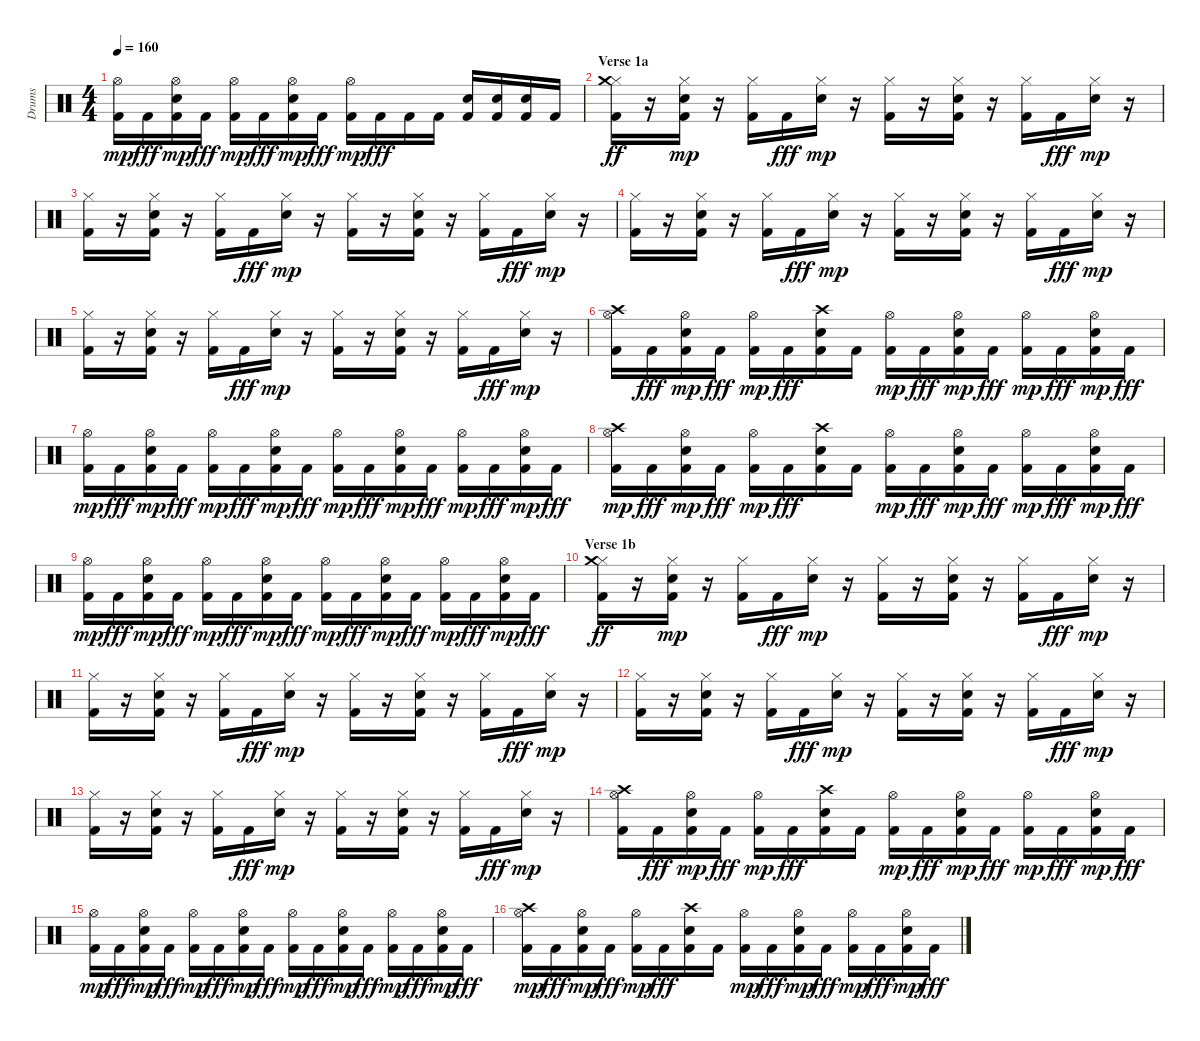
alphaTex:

\track ("Drums" "Drums") {instrument percussion}
\staff {score}
\articulation defaults
\ts (4 4)
\tempo 160
\clef neutral
\ks c
("Kick (hit) 2" "Hi-Hat (open)").16{dy mp} "Kick (hit) 2".16{dy fff} ("Kick (hit) 2" "Hi-Hat (open)" "Snare (hit) 2").16{dy mp} "Kick (hit) 2".16{dy fff} ("Kick (hit) 2" "Hi-Hat (open)").16{dy mp} "Kick (hit) 2".16{dy fff} ("Kick (hit) 2" "Hi-Hat (open)" "Snare (hit) 2").16{dy mp} "Kick (hit) 2".16{dy fff} ("Kick (hit) 2" "Hi-Hat (open)").16{dy mp} "Kick (hit) 2".16{dy fff} "Kick (hit) 2".16 "Kick (hit) 2".16 ("Kick (hit) 2" "Snare (hit) 2").16 ("Kick (hit) 2" "Snare (hit) 2").16 ("Kick (hit) 2" "Snare (hit) 2").16 "Kick (hit) 2".16 |
\section ("" "Verse 1a")
("Kick (hit) 2" "Hi-Hat (closed)" "Crash medium (hit)").16{dy ff} r.16 ("Kick (hit) 2" "Hi-Hat (closed)" "Snare (hit) 2").16{dy mp} r.16 ("Kick (hit) 2" "Hi-Hat (closed)").16 "Kick (hit) 2".16{dy fff} ("Hi-Hat (closed)" "Snare (hit) 2").16{dy mp} r.16 ("Kick (hit) 2" "Hi-Hat (closed)").16 r.16 ("Kick (hit) 2" "Hi-Hat (closed)" "Snare (hit) 2").16 r.16 ("Kick (hit) 2" "Hi-Hat (closed)").16 "Kick (hit) 2".16{dy fff} ("Hi-Hat (closed)" "Snare (hit) 2").16{dy mp} r.16 |
("Kick (hit) 2" "Hi-Hat (closed)").16 r.16 ("Kick (hit) 2" "Hi-Hat (closed)" "Snare (hit) 2").16 r.16 ("Kick (hit) 2" "Hi-Hat (closed)").16 "Kick (hit) 2".16{dy fff} ("Hi-Hat (closed)" "Snare (hit) 2").16{dy mp} r.16 ("Kick (hit) 2" "Hi-Hat (closed)").16 r.16 ("Kick (hit) 2" "Hi-Hat (closed)" "Snare (hit) 2").16 r.16 ("Kick (hit) 2" "Hi-Hat (closed)").16 "Kick (hit) 2".16{dy fff} ("Hi-Hat (closed)" "Snare (hit) 2").16{dy mp} r.16 |
("Kick (hit) 2" "Hi-Hat (closed)").16 r.16 ("Kick (hit) 2" "Hi-Hat (closed)" "Snare (hit) 2").16 r.16 ("Kick (hit) 2" "Hi-Hat (closed)").16 "Kick (hit) 2".16{dy fff} ("Hi-Hat (closed)" "Snare (hit) 2").16{dy mp} r.16 ("Kick (hit) 2" "Hi-Hat (closed)").16 r.16 ("Kick (hit) 2" "Hi-Hat (closed)" "Snare (hit) 2").16 r.16 ("Kick (hit) 2" "Hi-Hat (closed)").16 "Kick (hit) 2".16{dy fff} ("Hi-Hat (closed)" "Snare (hit) 2").16{dy mp} r.16 |
("Kick (hit) 2" "Hi-Hat (closed)").16 r.16 ("Kick (hit) 2" "Hi-Hat (closed)" "Snare (hit) 2").16 r.16 ("Kick (hit) 2" "Hi-Hat (closed)").16 "Kick (hit) 2".16{dy fff} ("Hi-Hat (closed)" "Snare (hit) 2").16{dy mp} r.16 ("Kick (hit) 2" "Hi-Hat (closed)").16 r.16 ("Kick (hit) 2" "Hi-Hat (closed)" "Snare (hit) 2").16 r.16 ("Kick (hit) 2" "Hi-Hat (closed)").16 "Kick (hit) 2".16{dy fff} ("Hi-Hat (closed)" "Snare (hit) 2").16{dy mp} r.16 |
("Kick (hit) 2" "Hi-Hat (open)" "Crash high (hit)").16 "Kick (hit) 2".16{dy fff} ("Kick (hit) 2" "Hi-Hat (open)" "Snare (hit) 2").16{dy mp} "Kick (hit) 2".16{dy fff} ("Kick (hit) 2" "Hi-Hat (open)").16{dy mp} "Kick (hit) 2".16{dy fff} ("Kick (hit) 2" "Snare (hit) 2" "Crash high (hit)").16 "Kick (hit) 2".16 ("Kick (hit) 2" "Hi-Hat (open)").16{dy mp} "Kick (hit) 2".16{dy fff} ("Kick (hit) 2" "Hi-Hat (open)" "Snare (hit) 2").16{dy mp} "Kick (hit) 2".16{dy fff} ("Kick (hit) 2" "Hi-Hat (open)").16{dy mp} "Kick (hit) 2".16{dy fff} ("Kick (hit) 2" "Hi-Hat (open)" "Snare (hit) 2").16{dy mp} "Kick (hit) 2".16{dy fff} |
("Kick (hit) 2" "Hi-Hat (open)").16{dy mp} "Kick (hit) 2".16{dy fff} ("Kick (hit) 2" "Hi-Hat (open)" "Snare (hit) 2").16{dy mp} "Kick (hit) 2".16{dy fff} ("Kick (hit) 2" "Hi-Hat (open)").16{dy mp} "Kick (hit) 2".16{dy fff} ("Kick (hit) 2" "Hi-Hat (open)" "Snare (hit) 2").16{dy mp} "Kick (hit) 2".16{dy fff} ("Kick (hit) 2" "Hi-Hat (open)").16{dy mp} "Kick (hit) 2".16{dy fff} ("Kick (hit) 2" "Hi-Hat (open)" "Snare (hit) 2").16{dy mp} "Kick (hit) 2".16{dy fff} ("Kick (hit) 2" "Hi-Hat (open)").16{dy mp} "Kick (hit) 2".16{dy fff} ("Kick (hit) 2" "Hi-Hat (open)" "Snare (hit) 2").16{dy mp} "Kick (hit) 2".16{dy fff} |
("Kick (hit) 2" "Hi-Hat (open)" "Crash high (hit)").16{dy mp} "Kick (hit) 2".16{dy fff} ("Kick (hit) 2" "Hi-Hat (open)" "Snare (hit) 2").16{dy mp} "Kick (hit) 2".16{dy fff} ("Kick (hit) 2" "Hi-Hat (open)").16{dy mp} "Kick (hit) 2".16{dy fff} ("Kick (hit) 2" "Snare (hit) 2" "Crash high (hit)").16 "Kick (hit) 2".16 ("Kick (hit) 2" "Hi-Hat (open)").16{dy mp} "Kick (hit) 2".16{dy fff} ("Kick (hit) 2" "Hi-Hat (open)" "Snare (hit) 2").16{dy mp} "Kick (hit) 2".16{dy fff} ("Kick (hit) 2" "Hi-Hat (open)").16{dy mp} "Kick (hit) 2".16{dy fff} ("Kick (hit) 2" "Hi-Hat (open)" "Snare (hit) 2").16{dy mp} "Kick (hit) 2".16{dy fff} |
("Kick (hit) 2" "Hi-Hat (open)").16{dy mp} "Kick (hit) 2".16{dy fff} ("Kick (hit) 2" "Hi-Hat (open)" "Snare (hit) 2").16{dy mp} "Kick (hit) 2".16{dy fff} ("Kick (hit) 2" "Hi-Hat (open)").16{dy mp} "Kick (hit) 2".16{dy fff} ("Kick (hit) 2" "Hi-Hat (open)" "Snare (hit) 2").16{dy mp} "Kick (hit) 2".16{dy fff} ("Kick (hit) 2" "Hi-Hat (open)").16{dy mp} "Kick (hit) 2".16{dy fff} ("Kick (hit) 2" "Hi-Hat (open)" "Snare (hit) 2").16{dy mp} "Kick (hit) 2".16{dy fff} ("Kick (hit) 2" "Hi-Hat (open)").16{dy mp} "Kick (hit) 2".16{dy fff} ("Kick (hit) 2" "Hi-Hat (open)" "Snare (hit) 2").16{dy mp} "Kick (hit) 2".16{dy fff} |
\section ("" "Verse 1b")
("Kick (hit) 2" "Hi-Hat (closed)" "Crash medium (hit)").16{dy ff} r.16 ("Kick (hit) 2" "Hi-Hat (closed)" "Snare (hit) 2").16{dy mp} r.16 ("Kick (hit) 2" "Hi-Hat (closed)").16 "Kick (hit) 2".16{dy fff} ("Hi-Hat (closed)" "Snare (hit) 2").16{dy mp} r.16 ("Kick (hit) 2" "Hi-Hat (closed)").16 r.16 ("Kick (hit) 2" "Hi-Hat (closed)" "Snare (hit) 2").16 r.16 ("Kick (hit) 2" "Hi-Hat (closed)").16 "Kick (hit) 2".16{dy fff} ("Hi-Hat (closed)" "Snare (hit) 2").16{dy mp} r.16 |
("Kick (hit) 2" "Hi-Hat (closed)").16 r.16 ("Kick (hit) 2" "Hi-Hat (closed)" "Snare (hit) 2").16 r.16 ("Kick (hit) 2" "Hi-Hat (closed)").16 "Kick (hit) 2".16{dy fff} ("Hi-Hat (closed)" "Snare (hit) 2").16{dy mp} r.16 ("Kick (hit) 2" "Hi-Hat (closed)").16 r.16 ("Kick (hit) 2" "Hi-Hat (closed)" "Snare (hit) 2").16 r.16 ("Kick (hit) 2" "Hi-Hat (closed)").16 "Kick (hit) 2".16{dy fff} ("Hi-Hat (closed)" "Snare (hit) 2").16{dy mp} r.16 |
("Kick (hit) 2" "Hi-Hat (closed)").16 r.16 ("Kick (hit) 2" "Hi-Hat (closed)" "Snare (hit) 2").16 r.16 ("Kick (hit) 2" "Hi-Hat (closed)").16 "Kick (hit) 2".16{dy fff} ("Hi-Hat (closed)" "Snare (hit) 2").16{dy mp} r.16 ("Kick (hit) 2" "Hi-Hat (closed)").16 r.16 ("Kick (hit) 2" "Hi-Hat (closed)" "Snare (hit) 2").16 r.16 ("Kick (hit) 2" "Hi-Hat (closed)").16 "Kick (hit) 2".16{dy fff} ("Hi-Hat (closed)" "Snare (hit) 2").16{dy mp} r.16 |
("Kick (hit) 2" "Hi-Hat (closed)").16 r.16 ("Kick (hit) 2" "Hi-Hat (closed)" "Snare (hit) 2").16 r.16 ("Kick (hit) 2" "Hi-Hat (closed)").16 "Kick (hit) 2".16{dy fff} ("Hi-Hat (closed)" "Snare (hit) 2").16{dy mp} r.16 ("Kick (hit) 2" "Hi-Hat (closed)").16 r.16 ("Kick (hit) 2" "Hi-Hat (closed)" "Snare (hit) 2").16 r.16 ("Kick (hit) 2" "Hi-Hat (closed)").16 "Kick (hit) 2".16{dy fff} ("Hi-Hat (closed)" "Snare (hit) 2").16{dy mp} r.16 |
("Kick (hit) 2" "Hi-Hat (open)" "Crash high (hit)").16 "Kick (hit) 2".16{dy fff} ("Kick (hit) 2" "Hi-Hat (open)" "Snare (hit) 2").16{dy mp} "Kick (hit) 2".16{dy fff} ("Kick (hit) 2" "Hi-Hat (open)").16{dy mp} "Kick (hit) 2".16{dy fff} ("Kick (hit) 2" "Snare (hit) 2" "Crash high (hit)").16 "Kick (hit) 2".16 ("Kick (hit) 2" "Hi-Hat (open)").16{dy mp} "Kick (hit) 2".16{dy fff} ("Kick (hit) 2" "Hi-Hat (open)" "Snare (hit) 2").16{dy mp} "Kick (hit) 2".16{dy fff} ("Kick (hit) 2" "Hi-Hat (open)").16{dy mp} "Kick (hit) 2".16{dy fff} ("Kick (hit) 2" "Hi-Hat (open)" "Snare (hit) 2").16{dy mp} "Kick (hit) 2".16{dy fff} |
("Kick (hit) 2" "Hi-Hat (open)").16{dy mp} "Kick (hit) 2".16{dy fff} ("Kick (hit) 2" "Hi-Hat (open)" "Snare (hit) 2").16{dy mp} "Kick (hit) 2".16{dy fff} ("Kick (hit) 2" "Hi-Hat (open)").16{dy mp} "Kick (hit) 2".16{dy fff} ("Kick (hit) 2" "Hi-Hat (open)" "Snare (hit) 2").16{dy mp} "Kick (hit) 2".16{dy fff} ("Kick (hit) 2" "Hi-Hat (open)").16{dy mp} "Kick (hit) 2".16{dy fff} ("Kick (hit) 2" "Hi-Hat (open)" "Snare (hit) 2").16{dy mp} "Kick (hit) 2".16{dy fff} ("Kick (hit) 2" "Hi-Hat (open)").16{dy mp} "Kick (hit) 2".16{dy fff} ("Kick (hit) 2" "Hi-Hat (open)" "Snare (hit) 2").16{dy mp} "Kick (hit) 2".16{dy fff} |
("Kick (hit) 2" "Hi-Hat (open)" "Crash high (hit)").16{dy mp} "Kick (hit) 2".16{dy fff} ("Kick (hit) 2" "Hi-Hat (open)" "Snare (hit) 2").16{dy mp} "Kick (hit) 2".16{dy fff} ("Kick (hit) 2" "Hi-Hat (open)").16{dy mp} "Kick (hit) 2".16{dy fff} ("Kick (hit) 2" "Snare (hit) 2" "Crash high (hit)").16 "Kick (hit) 2".16 ("Kick (hit) 2" "Hi-Hat (open)").16{dy mp} "Kick (hit) 2".16{dy fff} ("Kick (hit) 2" "Hi-Hat (open)" "Snare (hit) 2").16{dy mp} "Kick (hit) 2".16{dy fff} ("Kick (hit) 2" "Hi-Hat (open)").16{dy mp} "Kick (hit) 2".16{dy fff} ("Kick (hit) 2" "Hi-Hat (open)" "Snare (hit) 2").16{dy mp} "Kick (hit) 2".16{dy fff}
